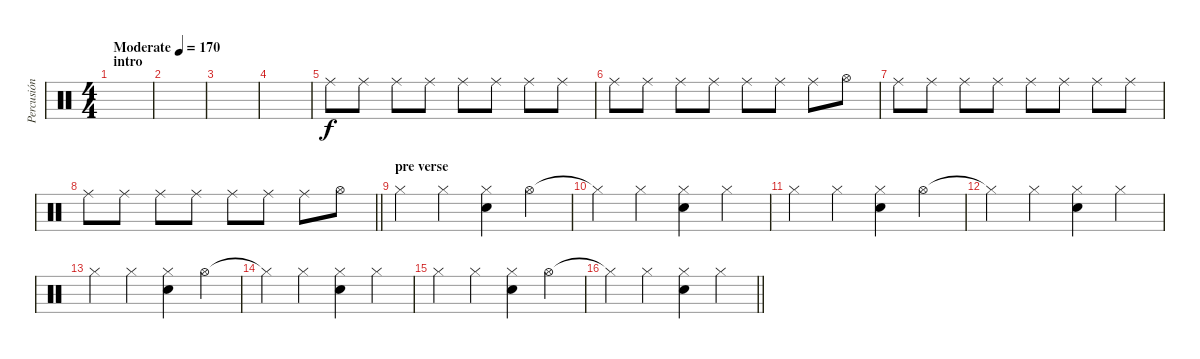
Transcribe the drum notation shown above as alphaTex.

\track ("Percusión" "Percusión") {instrument percussion}
\staff {score}
\articulation defaults
\ts (4 4)
\section ("" "intro")
\tempo (170 "Moderate")
\clef neutral
\ks c
|
|
|
|
"Ride (middle)".8 "Ride (middle)".8 "Ride (middle)".8 "Ride (middle)".8 "Ride (middle)".8 "Ride (middle)".8 "Ride (middle)".8 "Ride (middle)".8 |
"Ride (middle)".8 "Ride (middle)".8 "Ride (middle)".8 "Ride (middle)".8 "Ride (middle)".8 "Ride (middle)".8 "Ride (middle)".8 "Hi-Hat (open)".8 |
"Ride (middle)".8 "Ride (middle)".8 "Ride (middle)".8 "Ride (middle)".8 "Ride (middle)".8 "Ride (middle)".8 "Ride (middle)".8 "Ride (middle)".8 |
\barLineRight lightlight "Ride (middle)".8 "Ride (middle)".8 "Ride (middle)".8 "Ride (middle)".8 "Ride (middle)".8 "Ride (middle)".8 "Ride (middle)".8 "Hi-Hat (open)".8
|
\section ("" "pre verse")
"Hi-Hat (closed)".4 "Hi-Hat (closed)".4 ("Electric Snare (hit)" "Hi-Hat (closed)").4 "Hi-Hat (open)".4 |
"Hi-Hat (closed)"{t}.4 "Hi-Hat (closed)".4 ("Electric Snare (hit)" "Hi-Hat (closed)").4 "Hi-Hat (closed)".4 |
"Hi-Hat (closed)".4 "Hi-Hat (closed)".4 ("Electric Snare (hit)" "Hi-Hat (closed)").4 "Hi-Hat (open)".4 |
"Hi-Hat (closed)"{t}.4 "Hi-Hat (closed)".4 ("Electric Snare (hit)" "Hi-Hat (closed)").4 "Hi-Hat (closed)".4 |
"Hi-Hat (closed)".4 "Hi-Hat (closed)".4 ("Electric Snare (hit)" "Hi-Hat (closed)").4 "Hi-Hat (open)".4 |
"Hi-Hat (closed)"{t}.4 "Hi-Hat (closed)".4 ("Electric Snare (hit)" "Hi-Hat (closed)").4 "Hi-Hat (closed)".4 |
"Hi-Hat (closed)".4 "Hi-Hat (closed)".4 ("Electric Snare (hit)" "Hi-Hat (closed)").4 "Hi-Hat (open)".4 |
\barLineRight lightlight "Hi-Hat (closed)"{t}.4 "Hi-Hat (closed)".4
("Electric Snare (hit)" "Hi-Hat (closed)").4 "Hi-Hat (closed)".4
